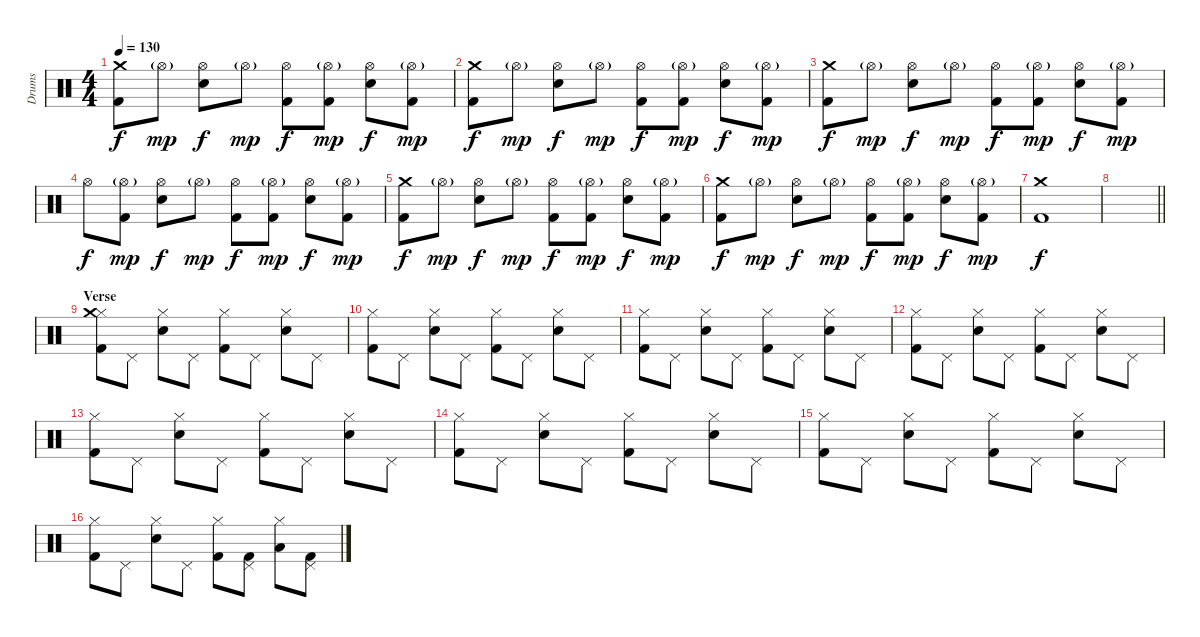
\track ("Drums" "Drums") {instrument percussion}
\staff {score}
\articulation defaults
\ts (4 4)
\tempo 130
\clef neutral
\ks c
("Kick (hit) 2" "Crash medium (hit)").8{dy f} "Hi-Hat (open)"{g}.8{dy mp} ("Electric Snare (hit)" "Hi-Hat (open)").8{dy f} "Hi-Hat (open)"{g}.8{dy mp} ("Kick (hit) 2" "Hi-Hat (open)").8{dy f} ("Kick (hit) 2" "Hi-Hat (open)"{g}).8{dy mp} ("Electric Snare (hit)" "Hi-Hat (open)").8{dy f} ("Kick (hit) 2" "Hi-Hat (open)"{g}).8{dy mp} |
("Kick (hit) 2" "Crash medium (hit)").8{dy f} "Hi-Hat (open)"{g}.8{dy mp} ("Electric Snare (hit)" "Hi-Hat (open)").8{dy f} "Hi-Hat (open)"{g}.8{dy mp} ("Kick (hit) 2" "Hi-Hat (open)").8{dy f} ("Kick (hit) 2" "Hi-Hat (open)"{g}).8{dy mp} ("Electric Snare (hit)" "Hi-Hat (open)").8{dy f} ("Kick (hit) 2" "Hi-Hat (open)"{g}).8{dy mp} |
("Kick (hit) 2" "Crash medium (hit)").8{dy f} "Hi-Hat (open)"{g}.8{dy mp} ("Electric Snare (hit)" "Hi-Hat (open)").8{dy f} "Hi-Hat (open)"{g}.8{dy mp} ("Kick (hit) 2" "Hi-Hat (open)").8{dy f} ("Kick (hit) 2" "Hi-Hat (open)"{g}).8{dy mp} ("Electric Snare (hit)" "Hi-Hat (open)").8{dy f} ("Kick (hit) 2" "Hi-Hat (open)"{g}).8{dy mp} |
"Hi-Hat (open)".8{dy f} ("Kick (hit) 2" "Hi-Hat (open)"{g}).8{dy mp} ("Electric Snare (hit)" "Hi-Hat (open)").8{dy f} "Hi-Hat (open)"{g}.8{dy mp} ("Kick (hit) 2" "Hi-Hat (open)").8{dy f} ("Kick (hit) 2" "Hi-Hat (open)"{g}).8{dy mp} ("Electric Snare (hit)" "Hi-Hat (open)").8{dy f} ("Kick (hit) 2" "Hi-Hat (open)"{g}).8{dy mp} |
("Kick (hit) 2" "Crash medium (hit)").8{dy f} "Hi-Hat (open)"{g}.8{dy mp} ("Electric Snare (hit)" "Hi-Hat (open)").8{dy f} "Hi-Hat (open)"{g}.8{dy mp} ("Kick (hit) 2" "Hi-Hat (open)").8{dy f} ("Kick (hit) 2" "Hi-Hat (open)"{g}).8{dy mp} ("Electric Snare (hit)" "Hi-Hat (open)").8{dy f} ("Kick (hit) 2" "Hi-Hat (open)"{g}).8{dy mp} |
("Kick (hit) 2" "Crash medium (hit)").8{dy f} "Hi-Hat (open)"{g}.8{dy mp} ("Electric Snare (hit)" "Hi-Hat (open)").8{dy f} "Hi-Hat (open)"{g}.8{dy mp} ("Kick (hit) 2" "Hi-Hat (open)").8{dy f} ("Kick (hit) 2" "Hi-Hat (open)"{g}).8{dy mp} ("Electric Snare (hit)" "Hi-Hat (open)").8{dy f} ("Kick (hit) 2" "Hi-Hat (open)"{g}).8{dy mp} |
("Kick (hit) 2" "Crash medium (hit)").1{dy f} |
\barLineRight lightlight
|
\section ("" "Verse")
("Kick (hit) 2" "Hi-Hat (closed)" "Crash medium (hit)").8 "Pedal Hi-Hat (hit)".8 ("Electric Snare (hit)" "Hi-Hat (closed)").8 "Pedal Hi-Hat (hit)".8 ("Kick (hit) 2" "Hi-Hat (closed)").8 "Pedal Hi-Hat (hit)".8 ("Electric Snare (hit)" "Hi-Hat (closed)").8 "Pedal Hi-Hat (hit)".8 |
("Kick (hit) 2" "Hi-Hat (closed)").8 "Pedal Hi-Hat (hit)".8 ("Electric Snare (hit)" "Hi-Hat (closed)").8 "Pedal Hi-Hat (hit)".8 ("Kick (hit) 2" "Hi-Hat (closed)").8 "Pedal Hi-Hat (hit)".8 ("Electric Snare (hit)" "Hi-Hat (closed)").8 "Pedal Hi-Hat (hit)".8 |
("Kick (hit) 2" "Hi-Hat (closed)").8 "Pedal Hi-Hat (hit)".8 ("Electric Snare (hit)" "Hi-Hat (closed)").8 "Pedal Hi-Hat (hit)".8 ("Kick (hit) 2" "Hi-Hat (closed)").8 "Pedal Hi-Hat (hit)".8 ("Electric Snare (hit)" "Hi-Hat (closed)").8 "Pedal Hi-Hat (hit)".8 |
("Kick (hit) 2" "Hi-Hat (closed)").8 "Pedal Hi-Hat (hit)".8 ("Electric Snare (hit)" "Hi-Hat (closed)").8 "Pedal Hi-Hat (hit)".8 ("Kick (hit) 2" "Hi-Hat (closed)").8 "Pedal Hi-Hat (hit)".8 ("Electric Snare (hit)" "Hi-Hat (closed)").8 "Pedal Hi-Hat (hit)".8 |
("Kick (hit) 2" "Hi-Hat (closed)").8 "Pedal Hi-Hat (hit)".8 ("Electric Snare (hit)" "Hi-Hat (closed)").8 "Pedal Hi-Hat (hit)".8 ("Kick (hit) 2" "Hi-Hat (closed)").8 "Pedal Hi-Hat (hit)".8 ("Electric Snare (hit)" "Hi-Hat (closed)").8 "Pedal Hi-Hat (hit)".8 |
("Kick (hit) 2" "Hi-Hat (closed)").8 "Pedal Hi-Hat (hit)".8 ("Electric Snare (hit)" "Hi-Hat (closed)").8 "Pedal Hi-Hat (hit)".8 ("Kick (hit) 2" "Hi-Hat (closed)").8 "Pedal Hi-Hat (hit)".8 ("Electric Snare (hit)" "Hi-Hat (closed)").8 "Pedal Hi-Hat (hit)".8 |
("Kick (hit) 2" "Hi-Hat (closed)").8 "Pedal Hi-Hat (hit)".8 ("Electric Snare (hit)" "Hi-Hat (closed)").8 "Pedal Hi-Hat (hit)".8 ("Kick (hit) 2" "Hi-Hat (closed)").8 "Pedal Hi-Hat (hit)".8 ("Electric Snare (hit)" "Hi-Hat (closed)").8 "Pedal Hi-Hat (hit)".8 |
("Kick (hit) 2" "Hi-Hat (closed)").8 "Pedal Hi-Hat (hit)".8 ("Electric Snare (hit)" "Hi-Hat (closed)").8 "Pedal Hi-Hat (hit)".8 ("Kick (hit) 2" "Hi-Hat (closed)").8 ("Kick (hit) 2" "Pedal Hi-Hat (hit)").8 ("Low Floor Tom (hit)" "Hi-Hat (closed)").8 ("Kick (hit) 2" "Pedal Hi-Hat (hit)").8
